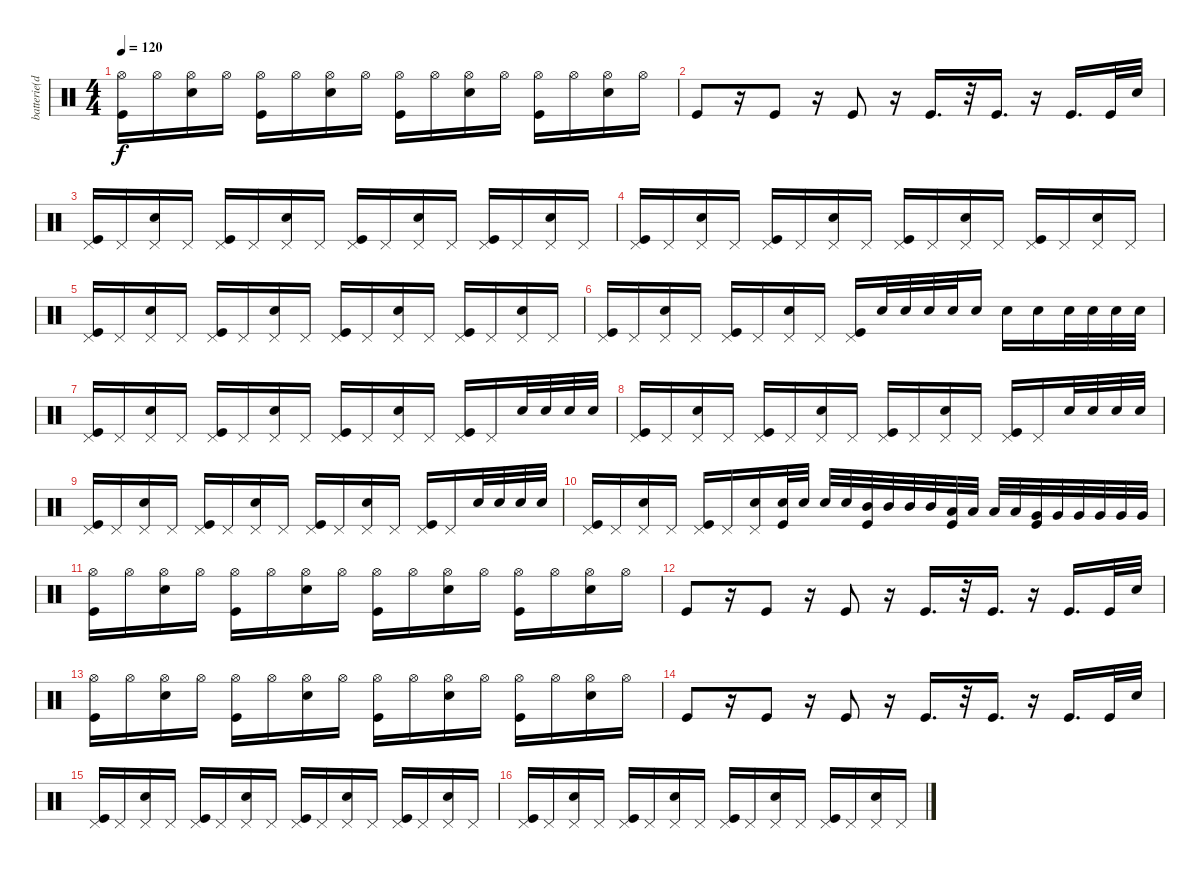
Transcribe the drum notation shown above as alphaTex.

\track ("batterie(dru)" "batterie(d") {instrument percussion}
\staff {score}
\articulation defaults
\ts (4 4)
\tempo 120
\clef neutral
\ks c
("Hi-Hat (open)" "Kick (hit)").16{dy f} "Hi-Hat (open)".16 ("Hi-Hat (open)" "Snare (hit) 2").16 "Hi-Hat (open)".16 ("Hi-Hat (open)" "Kick (hit)").16 "Hi-Hat (open)".16 ("Hi-Hat (open)" "Snare (hit) 2").16 "Hi-Hat (open)".16 ("Hi-Hat (open)" "Kick (hit)").16 "Hi-Hat (open)".16 ("Hi-Hat (open)" "Snare (hit) 2").16 "Hi-Hat (open)".16 ("Hi-Hat (open)" "Kick (hit)").16 "Hi-Hat (open)".16 ("Hi-Hat (open)" "Snare (hit) 2").16 "Hi-Hat (open)".16 |
"Kick (hit)".8 r.16 "Kick (hit)".8 r.16 "Kick (hit)".8 r.16 "Kick (hit)".16{d} r.32 "Kick (hit)".16{d} r.16 "Kick (hit)".16{d} "Kick (hit)".32 "Snare (hit) 2".32 |
("Pedal Hi-Hat (hit)" "Kick (hit)").16 "Pedal Hi-Hat (hit)".16 ("Pedal Hi-Hat (hit)" "Snare (hit) 2").16 "Pedal Hi-Hat (hit)".16 ("Pedal Hi-Hat (hit)" "Kick (hit)").16 "Pedal Hi-Hat (hit)".16 ("Pedal Hi-Hat (hit)" "Snare (hit) 2").16 "Pedal Hi-Hat (hit)".16 ("Pedal Hi-Hat (hit)" "Kick (hit)").16 "Pedal Hi-Hat (hit)".16 ("Pedal Hi-Hat (hit)" "Snare (hit) 2").16 "Pedal Hi-Hat (hit)".16 ("Pedal Hi-Hat (hit)" "Kick (hit)").16 "Pedal Hi-Hat (hit)".16 ("Pedal Hi-Hat (hit)" "Snare (hit) 2").16 "Pedal Hi-Hat (hit)".16 |
("Pedal Hi-Hat (hit)" "Kick (hit)").16 "Pedal Hi-Hat (hit)".16 ("Pedal Hi-Hat (hit)" "Snare (hit) 2").16 "Pedal Hi-Hat (hit)".16 ("Pedal Hi-Hat (hit)" "Kick (hit)").16 "Pedal Hi-Hat (hit)".16 ("Pedal Hi-Hat (hit)" "Snare (hit) 2").16 "Pedal Hi-Hat (hit)".16 ("Pedal Hi-Hat (hit)" "Kick (hit)").16 "Pedal Hi-Hat (hit)".16 ("Pedal Hi-Hat (hit)" "Snare (hit) 2").16 "Pedal Hi-Hat (hit)".16 ("Pedal Hi-Hat (hit)" "Kick (hit)").16 "Pedal Hi-Hat (hit)".16 ("Pedal Hi-Hat (hit)" "Snare (hit) 2").16 "Pedal Hi-Hat (hit)".16 |
("Pedal Hi-Hat (hit)" "Kick (hit)").16 "Pedal Hi-Hat (hit)".16 ("Pedal Hi-Hat (hit)" "Snare (hit) 2").16 "Pedal Hi-Hat (hit)".16 ("Pedal Hi-Hat (hit)" "Kick (hit)").16 "Pedal Hi-Hat (hit)".16 ("Pedal Hi-Hat (hit)" "Snare (hit) 2").16 "Pedal Hi-Hat (hit)".16 ("Pedal Hi-Hat (hit)" "Kick (hit)").16 "Pedal Hi-Hat (hit)".16 ("Pedal Hi-Hat (hit)" "Snare (hit) 2").16 "Pedal Hi-Hat (hit)".16 ("Pedal Hi-Hat (hit)" "Kick (hit)").16 "Pedal Hi-Hat (hit)".16 ("Pedal Hi-Hat (hit)" "Snare (hit) 2").16 "Pedal Hi-Hat (hit)".16 |
("Pedal Hi-Hat (hit)" "Kick (hit)").16 "Pedal Hi-Hat (hit)".16 ("Pedal Hi-Hat (hit)" "Snare (hit) 2").16 "Pedal Hi-Hat (hit)".16 ("Pedal Hi-Hat (hit)" "Kick (hit)").16 "Pedal Hi-Hat (hit)".16 ("Pedal Hi-Hat (hit)" "Snare (hit) 2").16 "Pedal Hi-Hat (hit)".16 ("Pedal Hi-Hat (hit)" "Kick (hit)").16 "Snare (hit) 2".32 "Snare (hit) 2".32 "Snare (hit) 2".32 "Snare (hit) 2".32 "Snare (hit) 2".16 "Snare (hit) 2".16 "Snare (hit) 2".16 "Snare (hit) 2".32 "Snare (hit) 2".32 "Snare (hit) 2".32 "Snare (hit) 2".32 |
("Pedal Hi-Hat (hit)" "Kick (hit)").16 "Pedal Hi-Hat (hit)".16 ("Pedal Hi-Hat (hit)" "Snare (hit) 2").16 "Pedal Hi-Hat (hit)".16 ("Pedal Hi-Hat (hit)" "Kick (hit)").16 "Pedal Hi-Hat (hit)".16 ("Pedal Hi-Hat (hit)" "Snare (hit) 2").16 "Pedal Hi-Hat (hit)".16 ("Pedal Hi-Hat (hit)" "Kick (hit)").16 "Pedal Hi-Hat (hit)".16 ("Pedal Hi-Hat (hit)" "Snare (hit) 2").16 "Pedal Hi-Hat (hit)".16 ("Pedal Hi-Hat (hit)" "Kick (hit)").16 "Pedal Hi-Hat (hit)".16 "Snare (hit) 2".32 "Snare (hit) 2".32 "Snare (hit) 2".32 "Snare (hit) 2".32 |
("Pedal Hi-Hat (hit)" "Kick (hit)").16 "Pedal Hi-Hat (hit)".16 ("Pedal Hi-Hat (hit)" "Snare (hit) 2").16 "Pedal Hi-Hat (hit)".16 ("Pedal Hi-Hat (hit)" "Kick (hit)").16 "Pedal Hi-Hat (hit)".16 ("Pedal Hi-Hat (hit)" "Snare (hit) 2").16 "Pedal Hi-Hat (hit)".16 ("Pedal Hi-Hat (hit)" "Kick (hit)").16 "Pedal Hi-Hat (hit)".16 ("Pedal Hi-Hat (hit)" "Snare (hit) 2").16 "Pedal Hi-Hat (hit)".16 ("Pedal Hi-Hat (hit)" "Kick (hit)").16 "Pedal Hi-Hat (hit)".16 "Snare (hit) 2".32 "Snare (hit) 2".32 "Snare (hit) 2".32 "Snare (hit) 2".32 |
("Pedal Hi-Hat (hit)" "Kick (hit)").16 "Pedal Hi-Hat (hit)".16 ("Pedal Hi-Hat (hit)" "Snare (hit) 2").16 "Pedal Hi-Hat (hit)".16 ("Pedal Hi-Hat (hit)" "Kick (hit)").16 "Pedal Hi-Hat (hit)".16 ("Pedal Hi-Hat (hit)" "Snare (hit) 2").16 "Pedal Hi-Hat (hit)".16 ("Pedal Hi-Hat (hit)" "Kick (hit)").16 "Pedal Hi-Hat (hit)".16 ("Pedal Hi-Hat (hit)" "Snare (hit) 2").16 "Pedal Hi-Hat (hit)".16 ("Pedal Hi-Hat (hit)" "Kick (hit)").16 "Pedal Hi-Hat (hit)".16 "Snare (hit) 2".32 "Snare (hit) 2".32 "Snare (hit) 2".32 "Snare (hit) 2".32 |
("Pedal Hi-Hat (hit)" "Kick (hit)").16 "Pedal Hi-Hat (hit)".16 ("Pedal Hi-Hat (hit)" "Snare (hit) 2").16 "Pedal Hi-Hat (hit)".16 ("Pedal Hi-Hat (hit)" "Kick (hit)").16 "Pedal Hi-Hat (hit)".16 ("Pedal Hi-Hat (hit)" "Snare (hit) 2").16 ("Electric Snare (hit)" "Kick (hit)").32 "Electric Snare (hit)".32 "Electric Snare (hit)".32 "Electric Snare (hit)".32 ("Mid Tom (hit)" "Kick (hit)").32 "Mid Tom (hit)".32 "Mid Tom (hit)".32 "Mid Tom (hit)".32 ("Low Tom (hit)" "Kick (hit)").32 "Low Tom (hit)".32 "Low Tom (hit)".32 "Low Tom (hit)".32 ("Very Low Tom (hit)" "Kick (hit)").32 "Very Low Tom (hit)".32 "Very Low Tom (hit)".32 "Very Low Tom (hit)".32 "Very Low Tom (hit)".32 "Very Low Tom (hit)".32 |
("Hi-Hat (open)" "Kick (hit)").16 "Hi-Hat (open)".16 ("Hi-Hat (open)" "Snare (hit) 2").16 "Hi-Hat (open)".16 ("Hi-Hat (open)" "Kick (hit)").16 "Hi-Hat (open)".16 ("Hi-Hat (open)" "Snare (hit) 2").16 "Hi-Hat (open)".16 ("Hi-Hat (open)" "Kick (hit)").16 "Hi-Hat (open)".16 ("Hi-Hat (open)" "Snare (hit) 2").16 "Hi-Hat (open)".16 ("Hi-Hat (open)" "Kick (hit)").16 "Hi-Hat (open)".16 ("Hi-Hat (open)" "Snare (hit) 2").16 "Hi-Hat (open)".16 |
"Kick (hit)".8 r.16 "Kick (hit)".8 r.16 "Kick (hit)".8 r.16 "Kick (hit)".16{d} r.32 "Kick (hit)".16{d} r.16 "Kick (hit)".16{d} "Kick (hit)".32 "Snare (hit) 2".32 |
("Hi-Hat (open)" "Kick (hit)").16 "Hi-Hat (open)".16 ("Hi-Hat (open)" "Snare (hit) 2").16 "Hi-Hat (open)".16 ("Hi-Hat (open)" "Kick (hit)").16 "Hi-Hat (open)".16 ("Hi-Hat (open)" "Snare (hit) 2").16 "Hi-Hat (open)".16 ("Hi-Hat (open)" "Kick (hit)").16 "Hi-Hat (open)".16 ("Hi-Hat (open)" "Snare (hit) 2").16 "Hi-Hat (open)".16 ("Hi-Hat (open)" "Kick (hit)").16 "Hi-Hat (open)".16 ("Hi-Hat (open)" "Snare (hit) 2").16 "Hi-Hat (open)".16 |
"Kick (hit)".8 r.16 "Kick (hit)".8 r.16 "Kick (hit)".8 r.16 "Kick (hit)".16{d} r.32 "Kick (hit)".16{d} r.16 "Kick (hit)".16{d} "Kick (hit)".32 "Snare (hit) 2".32 |
("Pedal Hi-Hat (hit)" "Kick (hit)").16 "Pedal Hi-Hat (hit)".16 ("Pedal Hi-Hat (hit)" "Snare (hit) 2").16 "Pedal Hi-Hat (hit)".16 ("Pedal Hi-Hat (hit)" "Kick (hit)").16 "Pedal Hi-Hat (hit)".16 ("Pedal Hi-Hat (hit)" "Snare (hit) 2").16 "Pedal Hi-Hat (hit)".16 ("Pedal Hi-Hat (hit)" "Kick (hit)").16 "Pedal Hi-Hat (hit)".16 ("Pedal Hi-Hat (hit)" "Snare (hit) 2").16 "Pedal Hi-Hat (hit)".16 ("Pedal Hi-Hat (hit)" "Kick (hit)").16 "Pedal Hi-Hat (hit)".16 ("Pedal Hi-Hat (hit)" "Snare (hit) 2").16 "Pedal Hi-Hat (hit)".16 |
("Pedal Hi-Hat (hit)" "Kick (hit)").16 "Pedal Hi-Hat (hit)".16 ("Pedal Hi-Hat (hit)" "Snare (hit) 2").16 "Pedal Hi-Hat (hit)".16 ("Pedal Hi-Hat (hit)" "Kick (hit)").16 "Pedal Hi-Hat (hit)".16 ("Pedal Hi-Hat (hit)" "Snare (hit) 2").16 "Pedal Hi-Hat (hit)".16 ("Pedal Hi-Hat (hit)" "Kick (hit)").16 "Pedal Hi-Hat (hit)".16 ("Pedal Hi-Hat (hit)" "Snare (hit) 2").16 "Pedal Hi-Hat (hit)".16 ("Pedal Hi-Hat (hit)" "Kick (hit)").16 "Pedal Hi-Hat (hit)".16 ("Pedal Hi-Hat (hit)" "Snare (hit) 2").16 "Pedal Hi-Hat (hit)".16
